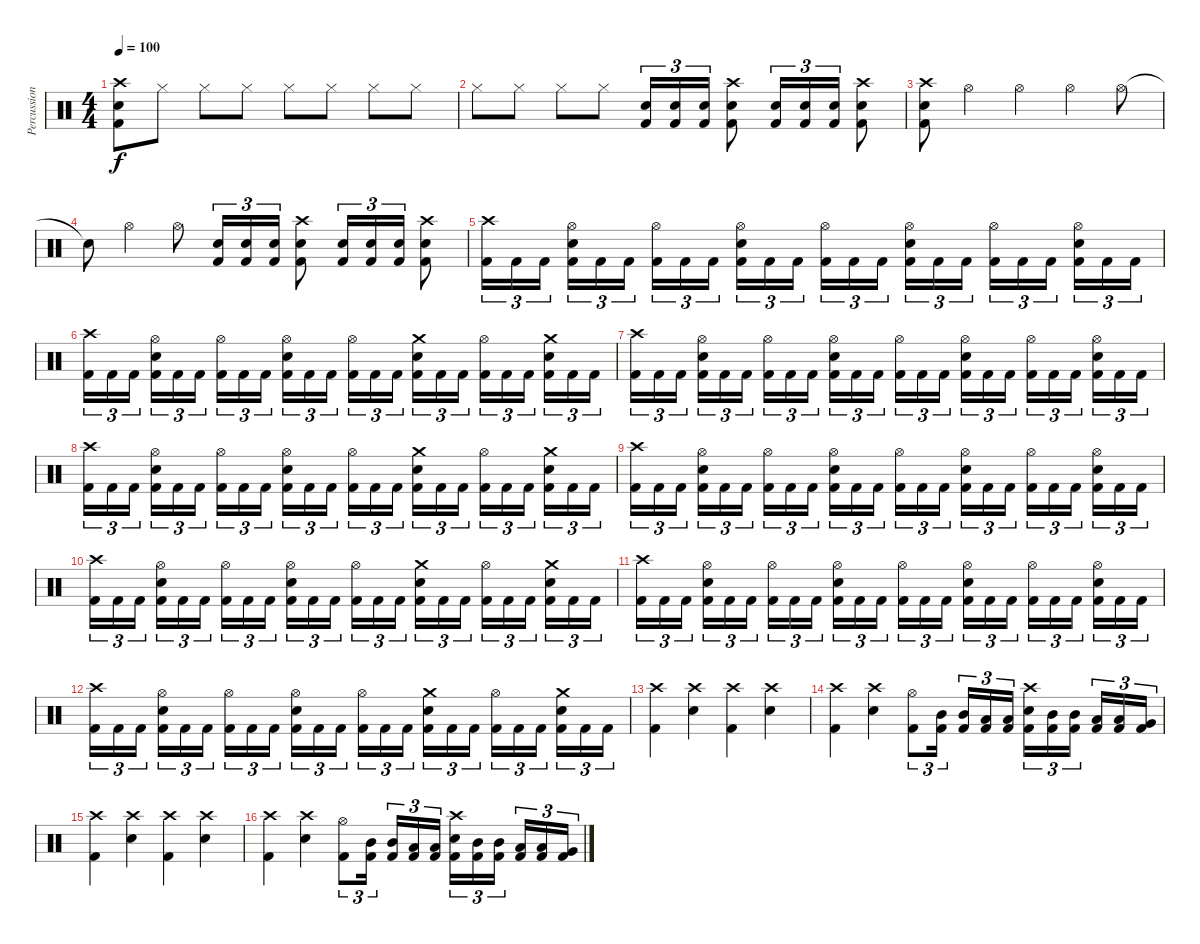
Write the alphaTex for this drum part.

\track ("Percussion" "Percussion") {instrument percussion}
\staff {score}
\articulation defaults
\ts (4 4)
\tempo 100
\clef neutral
\ks c
("Crash high (hit)" "Electric Snare (hit)" "Kick (hit) 2").8{dy f} "Hi-Hat (closed)".8 "Hi-Hat (closed)".8 "Hi-Hat (closed)".8 "Hi-Hat (closed)".8 "Hi-Hat (closed)".8 "Hi-Hat (closed)".8 "Hi-Hat (closed)".8 |
"Hi-Hat (closed)".8 "Hi-Hat (closed)".8 "Hi-Hat (closed)".8 "Hi-Hat (closed)".8 ("Electric Snare (hit)" "Kick (hit) 2").16{tu (3 2)} ("Electric Snare (hit)" "Kick (hit) 2").16{tu (3 2)} ("Electric Snare (hit)" "Kick (hit) 2").16{tu (3 2)} ("Crash high (hit)" "Electric Snare (hit)" "Kick (hit) 2").8 ("Electric Snare (hit)" "Kick (hit) 2").16{tu (3 2)} ("Electric Snare (hit)" "Kick (hit) 2").16{tu (3 2)} ("Electric Snare (hit)" "Kick (hit) 2").16{tu (3 2)} ("Crash high (hit)" "Electric Snare (hit)" "Kick (hit) 2").8 |
("Crash high (hit)" "Electric Snare (hit)" "Kick (hit) 2").8 "Hi-Hat (open)".4 "Hi-Hat (open)".4 "Hi-Hat (open)".4 "Hi-Hat (open)".8 |
"Snare (hit)"{t}.8 "Hi-Hat (open)".4 "Hi-Hat (open)".8 ("Electric Snare (hit)" "Kick (hit) 2").16{tu (3 2)} ("Electric Snare (hit)" "Kick (hit) 2").16{tu (3 2)} ("Electric Snare (hit)" "Kick (hit) 2").16{tu (3 2)} ("Crash high (hit)" "Electric Snare (hit)" "Kick (hit) 2").8 ("Electric Snare (hit)" "Kick (hit) 2").16{tu (3 2)} ("Electric Snare (hit)" "Kick (hit) 2").16{tu (3 2)} ("Electric Snare (hit)" "Kick (hit) 2").16{tu (3 2)} ("Crash high (hit)" "Electric Snare (hit)" "Kick (hit) 2").8 |
("Crash high (hit)" "Kick (hit) 2").16{tu (3 2)} "Kick (hit) 2".16{tu (3 2)} "Kick (hit) 2".16{tu (3 2)} ("Hi-Hat (open)" "Electric Snare (hit)" "Kick (hit) 2").16{tu (3 2)} "Kick (hit) 2".16{tu (3 2)} "Kick (hit) 2".16{tu (3 2)} ("Hi-Hat (open)" "Kick (hit) 2").16{tu (3 2)} "Kick (hit) 2".16{tu (3 2)} "Kick (hit) 2".16{tu (3 2)} ("Hi-Hat (open)" "Electric Snare (hit)" "Kick (hit) 2").16{tu (3 2)} "Kick (hit) 2".16{tu (3 2)} "Kick (hit) 2".16{tu (3 2)} ("Hi-Hat (open)" "Kick (hit) 2").16{tu (3 2)} "Kick (hit) 2".16{tu (3 2)} "Kick (hit) 2".16{tu (3 2)} ("Hi-Hat (open)" "Electric Snare (hit)" "Kick (hit) 2").16{tu (3 2)} "Kick (hit) 2".16{tu (3 2)} "Kick (hit) 2".16{tu (3 2)} ("Hi-Hat (open)" "Kick (hit) 2").16{tu (3 2)} "Kick (hit) 2".16{tu (3 2)} "Kick (hit) 2".16{tu (3 2)} ("Hi-Hat (open)" "Electric Snare (hit)" "Kick (hit) 2").16{tu (3 2)} "Kick (hit) 2".16{tu (3 2)} "Kick (hit) 2".16{tu (3 2)} |
("Crash high (hit)" "Kick (hit) 2").16{tu (3 2)} "Kick (hit) 2".16{tu (3 2)} "Kick (hit) 2".16{tu (3 2)} ("Hi-Hat (open)" "Electric Snare (hit)" "Kick (hit) 2").16{tu (3 2)} "Kick (hit) 2".16{tu (3 2)} "Kick (hit) 2".16{tu (3 2)} ("Hi-Hat (open)" "Kick (hit) 2").16{tu (3 2)} "Kick (hit) 2".16{tu (3 2)} "Kick (hit) 2".16{tu (3 2)} ("Hi-Hat (open)" "Electric Snare (hit)" "Kick (hit) 2").16{tu (3 2)} "Kick (hit) 2".16{tu (3 2)} "Kick (hit) 2".16{tu (3 2)} ("Hi-Hat (open)" "Kick (hit) 2").16{tu (3 2)} "Kick (hit) 2".16{tu (3 2)} "Kick (hit) 2".16{tu (3 2)} ("Crash medium (hit)" "Electric Snare (hit)" "Kick (hit) 2").16{tu (3 2)} "Kick (hit) 2".16{tu (3 2)} "Kick (hit) 2".16{tu (3 2)} ("Hi-Hat (open)" "Kick (hit) 2").16{tu (3 2)} "Kick (hit) 2".16{tu (3 2)} "Kick (hit) 2".16{tu (3 2)} ("Crash medium (hit)" "Electric Snare (hit)" "Kick (hit) 2").16{tu (3 2)} "Kick (hit) 2".16{tu (3 2)} "Kick (hit) 2".16{tu (3 2)} |
("Crash high (hit)" "Kick (hit) 2").16{tu (3 2)} "Kick (hit) 2".16{tu (3 2)} "Kick (hit) 2".16{tu (3 2)} ("Hi-Hat (open)" "Electric Snare (hit)" "Kick (hit) 2").16{tu (3 2)} "Kick (hit) 2".16{tu (3 2)} "Kick (hit) 2".16{tu (3 2)} ("Hi-Hat (open)" "Kick (hit) 2").16{tu (3 2)} "Kick (hit) 2".16{tu (3 2)} "Kick (hit) 2".16{tu (3 2)} ("Hi-Hat (open)" "Electric Snare (hit)" "Kick (hit) 2").16{tu (3 2)} "Kick (hit) 2".16{tu (3 2)} "Kick (hit) 2".16{tu (3 2)} ("Hi-Hat (open)" "Kick (hit) 2").16{tu (3 2)} "Kick (hit) 2".16{tu (3 2)} "Kick (hit) 2".16{tu (3 2)} ("Hi-Hat (open)" "Electric Snare (hit)" "Kick (hit) 2").16{tu (3 2)} "Kick (hit) 2".16{tu (3 2)} "Kick (hit) 2".16{tu (3 2)} ("Hi-Hat (open)" "Kick (hit) 2").16{tu (3 2)} "Kick (hit) 2".16{tu (3 2)} "Kick (hit) 2".16{tu (3 2)} ("Hi-Hat (open)" "Electric Snare (hit)" "Kick (hit) 2").16{tu (3 2)} "Kick (hit) 2".16{tu (3 2)} "Kick (hit) 2".16{tu (3 2)} |
("Crash high (hit)" "Kick (hit) 2").16{tu (3 2)} "Kick (hit) 2".16{tu (3 2)} "Kick (hit) 2".16{tu (3 2)} ("Hi-Hat (open)" "Electric Snare (hit)" "Kick (hit) 2").16{tu (3 2)} "Kick (hit) 2".16{tu (3 2)} "Kick (hit) 2".16{tu (3 2)} ("Hi-Hat (open)" "Kick (hit) 2").16{tu (3 2)} "Kick (hit) 2".16{tu (3 2)} "Kick (hit) 2".16{tu (3 2)} ("Hi-Hat (open)" "Electric Snare (hit)" "Kick (hit) 2").16{tu (3 2)} "Kick (hit) 2".16{tu (3 2)} "Kick (hit) 2".16{tu (3 2)} ("Hi-Hat (open)" "Kick (hit) 2").16{tu (3 2)} "Kick (hit) 2".16{tu (3 2)} "Kick (hit) 2".16{tu (3 2)} ("Crash medium (hit)" "Electric Snare (hit)" "Kick (hit) 2").16{tu (3 2)} "Kick (hit) 2".16{tu (3 2)} "Kick (hit) 2".16{tu (3 2)} ("Hi-Hat (open)" "Kick (hit) 2").16{tu (3 2)} "Kick (hit) 2".16{tu (3 2)} "Kick (hit) 2".16{tu (3 2)} ("Crash medium (hit)" "Electric Snare (hit)" "Kick (hit) 2").16{tu (3 2)} "Kick (hit) 2".16{tu (3 2)} "Kick (hit) 2".16{tu (3 2)} |
("Crash high (hit)" "Kick (hit) 2").16{tu (3 2)} "Kick (hit) 2".16{tu (3 2)} "Kick (hit) 2".16{tu (3 2)} ("Hi-Hat (open)" "Electric Snare (hit)" "Kick (hit) 2").16{tu (3 2)} "Kick (hit) 2".16{tu (3 2)} "Kick (hit) 2".16{tu (3 2)} ("Hi-Hat (open)" "Kick (hit) 2").16{tu (3 2)} "Kick (hit) 2".16{tu (3 2)} "Kick (hit) 2".16{tu (3 2)} ("Hi-Hat (open)" "Electric Snare (hit)" "Kick (hit) 2").16{tu (3 2)} "Kick (hit) 2".16{tu (3 2)} "Kick (hit) 2".16{tu (3 2)} ("Hi-Hat (open)" "Kick (hit) 2").16{tu (3 2)} "Kick (hit) 2".16{tu (3 2)} "Kick (hit) 2".16{tu (3 2)} ("Hi-Hat (open)" "Electric Snare (hit)" "Kick (hit) 2").16{tu (3 2)} "Kick (hit) 2".16{tu (3 2)} "Kick (hit) 2".16{tu (3 2)} ("Hi-Hat (open)" "Kick (hit) 2").16{tu (3 2)} "Kick (hit) 2".16{tu (3 2)} "Kick (hit) 2".16{tu (3 2)} ("Hi-Hat (open)" "Electric Snare (hit)" "Kick (hit) 2").16{tu (3 2)} "Kick (hit) 2".16{tu (3 2)} "Kick (hit) 2".16{tu (3 2)} |
("Crash high (hit)" "Kick (hit) 2").16{tu (3 2)} "Kick (hit) 2".16{tu (3 2)} "Kick (hit) 2".16{tu (3 2)} ("Hi-Hat (open)" "Electric Snare (hit)" "Kick (hit) 2").16{tu (3 2)} "Kick (hit) 2".16{tu (3 2)} "Kick (hit) 2".16{tu (3 2)} ("Hi-Hat (open)" "Kick (hit) 2").16{tu (3 2)} "Kick (hit) 2".16{tu (3 2)} "Kick (hit) 2".16{tu (3 2)} ("Hi-Hat (open)" "Electric Snare (hit)" "Kick (hit) 2").16{tu (3 2)} "Kick (hit) 2".16{tu (3 2)} "Kick (hit) 2".16{tu (3 2)} ("Hi-Hat (open)" "Kick (hit) 2").16{tu (3 2)} "Kick (hit) 2".16{tu (3 2)} "Kick (hit) 2".16{tu (3 2)} ("Crash medium (hit)" "Electric Snare (hit)" "Kick (hit) 2").16{tu (3 2)} "Kick (hit) 2".16{tu (3 2)} "Kick (hit) 2".16{tu (3 2)} ("Hi-Hat (open)" "Kick (hit) 2").16{tu (3 2)} "Kick (hit) 2".16{tu (3 2)} "Kick (hit) 2".16{tu (3 2)} ("Crash medium (hit)" "Electric Snare (hit)" "Kick (hit) 2").16{tu (3 2)} "Kick (hit) 2".16{tu (3 2)} "Kick (hit) 2".16{tu (3 2)} |
("Crash high (hit)" "Kick (hit) 2").16{tu (3 2)} "Kick (hit) 2".16{tu (3 2)} "Kick (hit) 2".16{tu (3 2)} ("Hi-Hat (open)" "Electric Snare (hit)" "Kick (hit) 2").16{tu (3 2)} "Kick (hit) 2".16{tu (3 2)} "Kick (hit) 2".16{tu (3 2)} ("Hi-Hat (open)" "Kick (hit) 2").16{tu (3 2)} "Kick (hit) 2".16{tu (3 2)} "Kick (hit) 2".16{tu (3 2)} ("Hi-Hat (open)" "Electric Snare (hit)" "Kick (hit) 2").16{tu (3 2)} "Kick (hit) 2".16{tu (3 2)} "Kick (hit) 2".16{tu (3 2)} ("Hi-Hat (open)" "Kick (hit) 2").16{tu (3 2)} "Kick (hit) 2".16{tu (3 2)} "Kick (hit) 2".16{tu (3 2)} ("Hi-Hat (open)" "Electric Snare (hit)" "Kick (hit) 2").16{tu (3 2)} "Kick (hit) 2".16{tu (3 2)} "Kick (hit) 2".16{tu (3 2)} ("Hi-Hat (open)" "Kick (hit) 2").16{tu (3 2)} "Kick (hit) 2".16{tu (3 2)} "Kick (hit) 2".16{tu (3 2)} ("Hi-Hat (open)" "Electric Snare (hit)" "Kick (hit) 2").16{tu (3 2)} "Kick (hit) 2".16{tu (3 2)} "Kick (hit) 2".16{tu (3 2)} |
("Crash high (hit)" "Kick (hit) 2").16{tu (3 2)} "Kick (hit) 2".16{tu (3 2)} "Kick (hit) 2".16{tu (3 2)} ("Hi-Hat (open)" "Electric Snare (hit)" "Kick (hit) 2").16{tu (3 2)} "Kick (hit) 2".16{tu (3 2)} "Kick (hit) 2".16{tu (3 2)} ("Hi-Hat (open)" "Kick (hit) 2").16{tu (3 2)} "Kick (hit) 2".16{tu (3 2)} "Kick (hit) 2".16{tu (3 2)} ("Hi-Hat (open)" "Electric Snare (hit)" "Kick (hit) 2").16{tu (3 2)} "Kick (hit) 2".16{tu (3 2)} "Kick (hit) 2".16{tu (3 2)} ("Hi-Hat (open)" "Kick (hit) 2").16{tu (3 2)} "Kick (hit) 2".16{tu (3 2)} "Kick (hit) 2".16{tu (3 2)} ("Crash medium (hit)" "Electric Snare (hit)" "Kick (hit) 2").16{tu (3 2)} "Kick (hit) 2".16{tu (3 2)} "Kick (hit) 2".16{tu (3 2)} ("Hi-Hat (open)" "Kick (hit) 2").16{tu (3 2)} "Kick (hit) 2".16{tu (3 2)} "Kick (hit) 2".16{tu (3 2)} ("Crash medium (hit)" "Electric Snare (hit)" "Kick (hit) 2").16{tu (3 2)} "Kick (hit) 2".16{tu (3 2)} "Kick (hit) 2".16{tu (3 2)} |
("Crash high (hit)" "Kick (hit) 2").4 ("Crash high (hit)" "Electric Snare (hit)").4 ("Crash high (hit)" "Kick (hit) 2").4 ("Crash high (hit)" "Electric Snare (hit)").4 |
("Crash high (hit)" "Kick (hit) 2").4 ("Crash high (hit)" "Electric Snare (hit)").4 ("Hi-Hat (open)" "Kick (hit) 2").8{tu (3 2)} ("Mid Tom (hit)" "Kick (hit) 2").16{tu (3 2)} ("Mid Tom (hit)" "Kick (hit) 2").16{tu (3 2)} ("Low Tom (hit)" "Kick (hit) 2").16{tu (3 2)} ("Low Tom (hit)" "Kick (hit) 2").16{tu (3 2)} ("Crash high (hit)" "Electric Snare (hit)" "Kick (hit) 2").16{tu (3 2)} ("Mid Tom (hit)" "Kick (hit) 2").16{tu (3 2)} ("Mid Tom (hit)" "Kick (hit) 2").16{tu (3 2)} ("Low Tom (hit)" "Kick (hit) 2").16{tu (3 2)} ("Low Tom (hit)" "Kick (hit) 2").16{tu (3 2)} ("Very Low Tom (hit)" "Kick (hit) 2").16{tu (3 2)} |
("Crash high (hit)" "Kick (hit) 2").4 ("Crash high (hit)" "Electric Snare (hit)").4 ("Crash high (hit)" "Kick (hit) 2").4 ("Crash high (hit)" "Electric Snare (hit)").4 |
("Crash high (hit)" "Kick (hit) 2").4 ("Crash high (hit)" "Electric Snare (hit)").4 ("Hi-Hat (open)" "Kick (hit) 2").8{tu (3 2)} ("Mid Tom (hit)" "Kick (hit) 2").16{tu (3 2)} ("Mid Tom (hit)" "Kick (hit) 2").16{tu (3 2)} ("Low Tom (hit)" "Kick (hit) 2").16{tu (3 2)} ("Low Tom (hit)" "Kick (hit) 2").16{tu (3 2)} ("Crash high (hit)" "Electric Snare (hit)" "Kick (hit) 2").16{tu (3 2)} ("Mid Tom (hit)" "Kick (hit) 2").16{tu (3 2)} ("Mid Tom (hit)" "Kick (hit) 2").16{tu (3 2)} ("Low Tom (hit)" "Kick (hit) 2").16{tu (3 2)} ("Low Tom (hit)" "Kick (hit) 2").16{tu (3 2)} ("Very Low Tom (hit)" "Kick (hit) 2").16{tu (3 2)}
